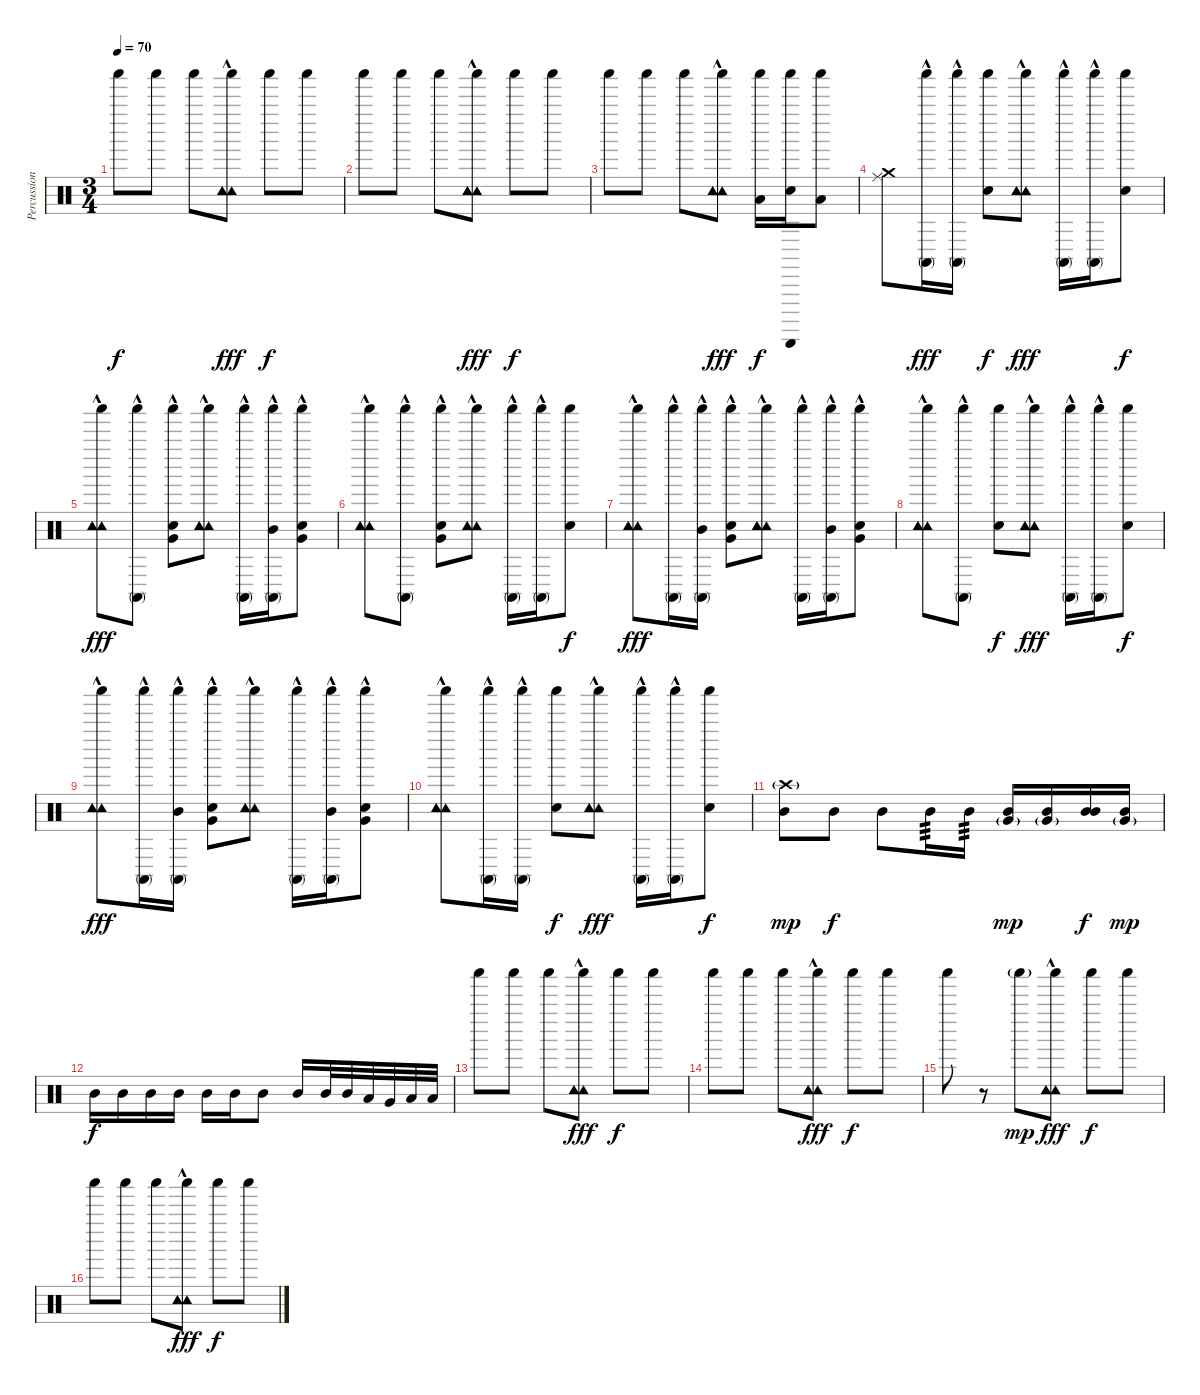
\track ("Percussion" "Percussion") {instrument percussion}
\staff {score}
\articulation defaults
\ts (3 4)
\tempo 70
\clef neutral
\ks c "Shaker (hit)".8{dy f} "Shaker (hit)".8 "Shaker (hit)".8
("Shaker (hit)" "Tambourine (hit)"{hac} "Tambourine (hit)"{hac} "Tambourine (hit)"{hac}).8{bd 60 dy fff} "Shaker (hit)".8{dy f} "Shaker (hit)".8 |
"Shaker (hit)".8 "Shaker (hit)".8 "Shaker (hit)".8 ("Shaker (hit)" "Tambourine (hit)"{hac} "Tambourine (hit)"{hac} "Tambourine (hit)"{hac}).8{bd 60 dy fff} "Shaker (hit)".8{dy f} "Shaker (hit)".8 |
"Shaker (hit)".8 "Shaker (hit)".8 "Shaker (hit)".8 ("Shaker (hit)" "Tambourine (hit)"{hac} "Tambourine (hit)"{hac} "Tambourine (hit)"{hac}).8{bd 60 dy fff} ("Shaker (hit)" "Low Tom (hit)").16{dy f} ("Shaker (hit)" "Guiro (scrap-return)" "Snare (hit) 2").16 ("Shaker (hit)" "Low Floor Tom (hit)").8 |
("Ride (middle)" "Crash medium (hit)").8 ("Shaker (hit)" "Conga high (mute)"{hac}).16{dy fff} ("Shaker (hit)" "Conga high (mute)"{hac}).16 ("Shaker (hit)" "Snare (hit) 2").8{dy f} ("Shaker (hit)" "Tambourine (hit)"{hac} "Tambourine (hit)"{hac} "Tambourine (hit)"{hac}).8{bd 60 dy fff} ("Shaker (hit)" "Conga high (mute)"{hac}).16 ("Shaker (hit)" "Conga high (mute)"{hac}).16 ("Shaker (hit)" "Snare (hit) 2").8{dy f} |
("Shaker (hit)" "Tambourine (hit)"{hac} "Tambourine (hit)"{hac} "Tambourine (hit)"{hac}).8{bd 60 dy fff} ("Shaker (hit)" "Conga high (mute)"{hac}).8 ("Shaker (hit)" "Snare (hit) 2" "Very Low Tom (hit)"{hac}).8 ("Shaker (hit)" "Tambourine (hit)"{hac} "Tambourine (hit)"{hac} "Tambourine (hit)"{hac}).8{bd 60} ("Shaker (hit)" "Conga high (mute)"{hac}).16 ("Shaker (hit)" "Conga high (mute)"{hac} "Mid Tom (hit)"{hac}).16 ("Shaker (hit)" "Snare (hit) 2" "Very Low Tom (hit)"{hac}).8 |
("Shaker (hit)" "Tambourine (hit)"{hac} "Tambourine (hit)"{hac} "Tambourine (hit)"{hac}).8{bd 60} ("Shaker (hit)" "Conga high (mute)"{hac}).8 ("Shaker (hit)" "Snare (hit) 2" "Very Low Tom (hit)"{hac}).8 ("Shaker (hit)" "Tambourine (hit)"{hac} "Tambourine (hit)"{hac} "Tambourine (hit)"{hac}).8{bd 60} ("Shaker (hit)" "Conga high (mute)"{hac}).16 ("Shaker (hit)" "Conga high (mute)"{hac}).16 ("Shaker (hit)" "Snare (hit) 2").8{dy f} |
("Shaker (hit)" "Tambourine (hit)"{hac} "Tambourine (hit)"{hac} "Tambourine (hit)"{hac}).8{bd 60 dy fff} ("Shaker (hit)" "Conga high (mute)"{hac}).16 ("Shaker (hit)" "Conga high (mute)"{hac} "Mid Tom (hit)"{hac}).16 ("Shaker (hit)" "Snare (hit) 2" "Very Low Tom (hit)"{hac}).8 ("Shaker (hit)" "Tambourine (hit)"{hac} "Tambourine (hit)"{hac} "Tambourine (hit)"{hac}).8{bd 60} ("Shaker (hit)" "Conga high (mute)"{hac}).16 ("Shaker (hit)" "Conga high (mute)"{hac} "Mid Tom (hit)"{hac}).16 ("Shaker (hit)" "Snare (hit) 2" "Very Low Tom (hit)"{hac}).8 |
("Shaker (hit)" "Tambourine (hit)"{hac} "Tambourine (hit)"{hac} "Tambourine (hit)"{hac}).8{bd 60} ("Shaker (hit)" "Conga high (mute)"{hac}).8 ("Shaker (hit)" "Snare (hit) 2").8{dy f} ("Shaker (hit)" "Tambourine (hit)"{hac} "Tambourine (hit)"{hac} "Tambourine (hit)"{hac}).8{bd 60 dy fff} ("Shaker (hit)" "Conga high (mute)"{hac}).16 ("Shaker (hit)" "Conga high (mute)"{hac}).16 ("Shaker (hit)" "Snare (hit) 2").8{dy f} |
("Shaker (hit)" "Tambourine (hit)"{hac} "Tambourine (hit)"{hac} "Tambourine (hit)"{hac}).8{bd 60 dy fff} ("Shaker (hit)" "Conga high (mute)"{hac}).16 ("Shaker (hit)" "Conga high (mute)"{hac} "Mid Tom (hit)"{hac}).16 ("Shaker (hit)" "Snare (hit) 2" "Very Low Tom (hit)"{hac}).8 ("Shaker (hit)" "Tambourine (hit)"{hac} "Tambourine (hit)"{hac} "Tambourine (hit)"{hac}).8{bd 60} ("Shaker (hit)" "Conga high (mute)"{hac}).16 ("Shaker (hit)" "Conga high (mute)"{hac} "Mid Tom (hit)"{hac}).16 ("Shaker (hit)" "Snare (hit) 2" "Very Low Tom (hit)"{hac}).8 |
("Shaker (hit)" "Tambourine (hit)"{hac} "Tambourine (hit)"{hac} "Tambourine (hit)"{hac}).8{bd 60} ("Shaker (hit)" "Conga high (mute)"{hac}).16 ("Shaker (hit)" "Conga high (mute)"{hac}).16 ("Shaker (hit)" "Snare (hit) 2").8{dy f} ("Shaker (hit)" "Tambourine (hit)"{hac} "Tambourine (hit)"{hac} "Tambourine (hit)"{hac}).8{bd 60 dy fff} ("Shaker (hit)" "Conga high (mute)"{hac}).16 ("Shaker (hit)" "Conga high (mute)"{hac}).16 ("Shaker (hit)" "Snare (hit) 2").8{dy f} |
("Crash high (hit)"{g} "Mid Tom (hit)").8{dy mp} "Mid Tom (hit)".8{dy f} "Mid Tom (hit)".8 "Mid Tom (hit)".16{tp 3} "Mid Tom (hit)".16{tp 3} ("Mid Tom (hit)" "Very Low Tom (hit)"{g}).16{dy mp} ("Mid Tom (hit)" "Very Low Tom (hit)"{g}).16 ("Mid Tom (hit)" "Mid Tom (hit)").16{dy f} ("Mid Tom (hit)" "Very Low Tom (hit)"{g}).16{dy mp} |
"Mid Tom (hit)".16{dy f} "Mid Tom (hit)".16 "Mid Tom (hit)".16 "Mid Tom (hit)".16 "Mid Tom (hit)".16 "Mid Tom (hit)".16 "Mid Tom (hit)".8 "Mid Tom (hit)".16 "Mid Tom (hit)".32 "Mid Tom (hit)".32 "Low Tom (hit)".32 "Very Low Tom (hit)".32 "Low Floor Tom (hit)".32 "Low Floor Tom (hit)".32 |
"Shaker (hit)".8 "Shaker (hit)".8 "Shaker (hit)".8 ("Shaker (hit)" "Tambourine (hit)"{hac} "Tambourine (hit)"{hac} "Tambourine (hit)"{hac}).8{bd 60 dy fff} "Shaker (hit)".8{dy f} "Shaker (hit)".8 |
"Shaker (hit)".8 "Shaker (hit)".8 "Shaker (hit)".8 ("Shaker (hit)" "Tambourine (hit)"{hac} "Tambourine (hit)"{hac} "Tambourine (hit)"{hac}).8{bd 60 dy fff} "Shaker (hit)".8{dy f} "Shaker (hit)".8 |
"Shaker (hit)".8 r.8 "Shaker (hit)"{g}.8{dy mp} ("Shaker (hit)" "Tambourine (hit)"{hac} "Tambourine (hit)"{hac} "Tambourine (hit)"{hac}).8{bd 60 dy fff} "Shaker (hit)".8{dy f} "Shaker (hit)".8 |
"Shaker (hit)".8 "Shaker (hit)".8 "Shaker (hit)".8 ("Shaker (hit)" "Tambourine (hit)"{hac} "Tambourine (hit)"{hac} "Tambourine (hit)"{hac}).8{bd 60 dy fff} "Shaker (hit)".8{dy f} "Shaker (hit)".8
